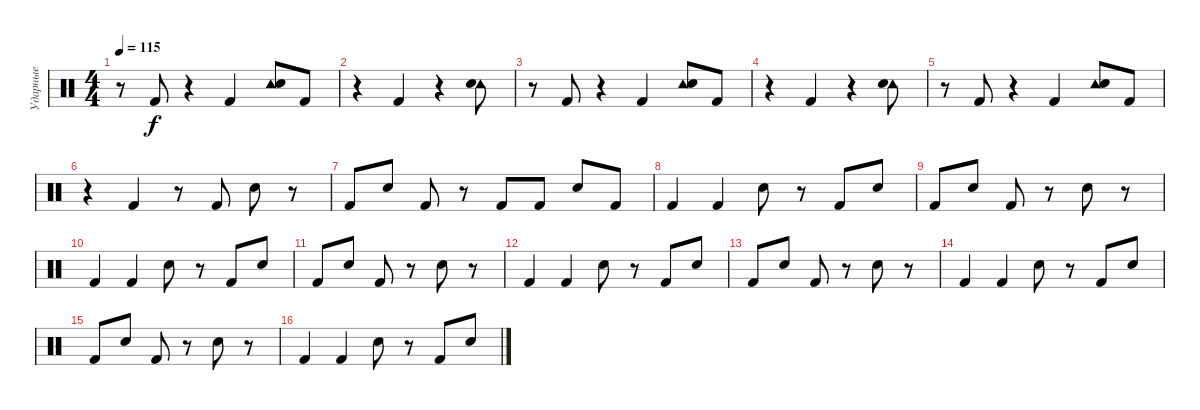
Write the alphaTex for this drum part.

\track ("Ударные" "Ударные") {instrument percussion}
\staff
\articulation defaults
\ts (4 4)
\tempo 115
\clef neutral
\ks c
r.8{dy f} "Kick (hit) 2".8 r.4 "Kick (hit) 2".4 ("Tambourine (hit)" "Electric Snare (hit)").8 "Kick (hit) 2".8 |
r.4 "Kick (hit) 2".4 r.4 ("Tambourine (hit)" "Electric Snare (hit)").8 |
r.8 "Kick (hit) 2".8 r.4 "Kick (hit) 2".4 ("Tambourine (hit)" "Electric Snare (hit)").8 "Kick (hit) 2".8 |
r.4 "Kick (hit) 2".4 r.4 ("Tambourine (hit)" "Electric Snare (hit)").8 |
r.8 "Kick (hit) 2".8 r.4 "Kick (hit) 2".4 ("Tambourine (hit)" "Electric Snare (hit)").8 "Kick (hit) 2".8 |
r.4 "Kick (hit) 2".4 r.8 "Kick (hit) 2".8 "Electric Snare (hit)".8 r.8 |
"Kick (hit) 2".8 "Electric Snare (hit)".8 "Kick (hit) 2".8 r.8 "Kick (hit) 2".8 "Kick (hit) 2".8 "Electric Snare (hit)".8 "Kick (hit) 2".8 |
"Kick (hit) 2".4 "Kick (hit) 2".4 "Electric Snare (hit)".8 r.8 "Kick (hit) 2".8 "Electric Snare (hit)".8 |
"Kick (hit) 2".8 "Electric Snare (hit)".8 "Kick (hit) 2".8 r.8 "Electric Snare (hit)".8 r.8 |
"Kick (hit) 2".4 "Kick (hit) 2".4 "Electric Snare (hit)".8 r.8 "Kick (hit) 2".8 "Electric Snare (hit)".8 |
"Kick (hit) 2".8 "Electric Snare (hit)".8 "Kick (hit) 2".8 r.8 "Electric Snare (hit)".8 r.8 |
"Kick (hit) 2".4 "Kick (hit) 2".4 "Electric Snare (hit)".8 r.8 "Kick (hit) 2".8 "Electric Snare (hit)".8 |
"Kick (hit) 2".8 "Electric Snare (hit)".8 "Kick (hit) 2".8 r.8 "Electric Snare (hit)".8 r.8 |
"Kick (hit) 2".4 "Kick (hit) 2".4 "Electric Snare (hit)".8 r.8 "Kick (hit) 2".8 "Electric Snare (hit)".8 |
"Kick (hit) 2".8 "Electric Snare (hit)".8 "Kick (hit) 2".8 r.8 "Electric Snare (hit)".8 r.8 |
"Kick (hit) 2".4 "Kick (hit) 2".4 "Electric Snare (hit)".8 r.8 "Kick (hit) 2".8 "Electric Snare (hit)".8
